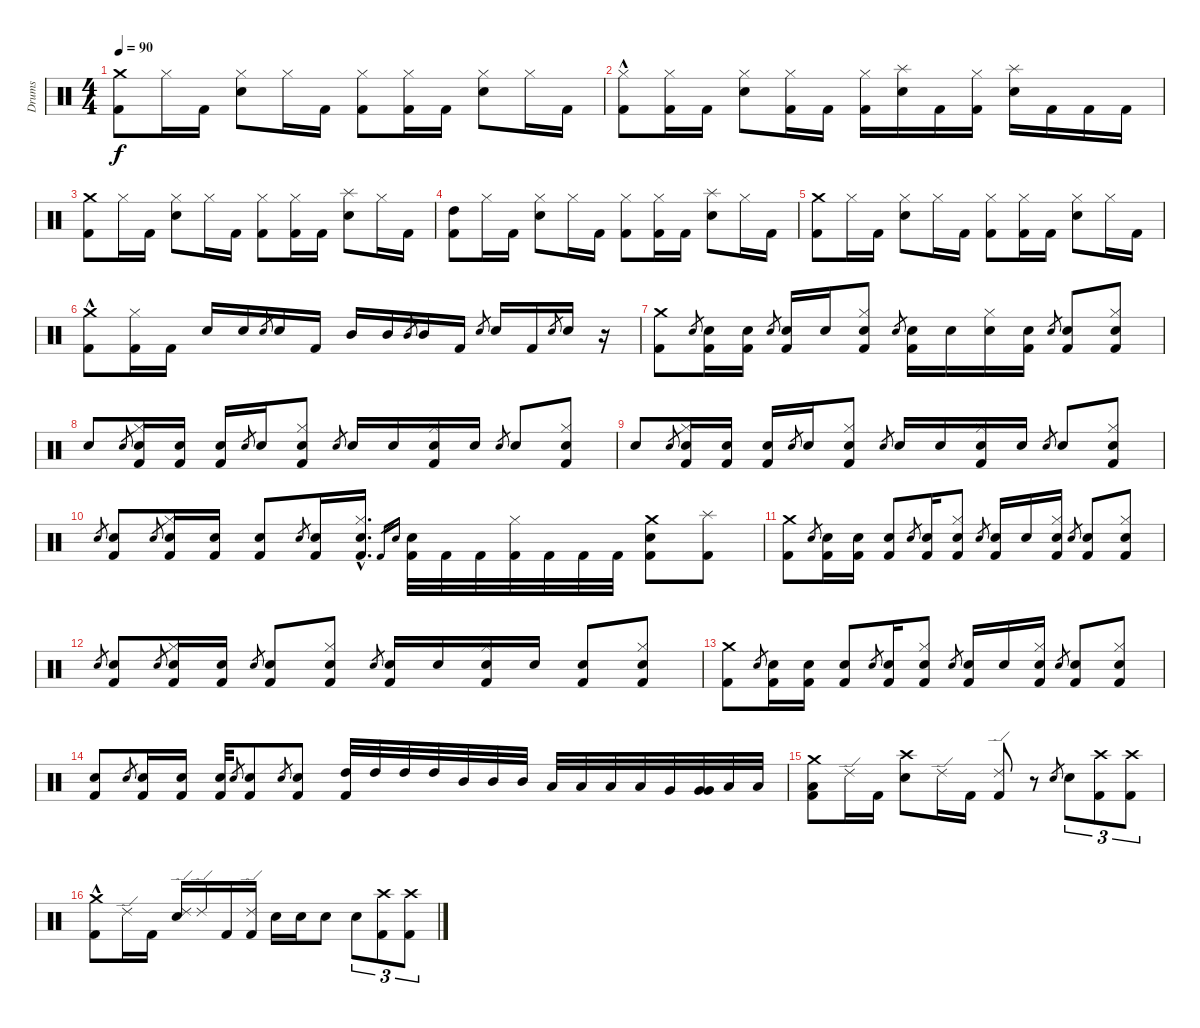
\track ("Drums" "Drums") {instrument percussion}
\staff {score}
\articulation defaults
\ts (4 4)
\tempo 90
\clef neutral
\ks c
("Crash medium (hit)" "Kick (hit) 2").8{dy f} "Hi-Hat (closed)".16 "Kick (hit) 2".16 ("Hi-Hat (closed)" "Electric Snare (hit)").8 "Hi-Hat (closed)".16 "Kick (hit) 2".16 ("Hi-Hat (closed)" "Kick (hit) 2").8 ("Hi-Hat (closed)" "Kick (hit) 2").16 "Kick (hit) 2".16 ("Hi-Hat (closed)" "Electric Snare (hit)").8 "Hi-Hat (closed)".16 "Kick (hit) 2".16 |
("Hi-Hat (closed)" "Kick (hit) 2"{hac}).8 ("Hi-Hat (closed)" "Kick (hit) 2").16 "Kick (hit) 2".16 ("Hi-Hat (closed)" "Electric Snare (hit)").8 ("Hi-Hat (closed)" "Kick (hit) 2").16 "Kick (hit) 2".16 ("Hi-Hat (closed)" "Kick (hit) 2").16 ("Splash (hit)" "Electric Snare (hit)").16 "Kick (hit) 2".16 ("Hi-Hat (closed)" "Kick (hit) 2").16 ("Splash (hit)" "Electric Snare (hit)").16 "Kick (hit) 2".16 "Kick (hit) 2".16 "Kick (hit) 2".16 |
("Crash medium (hit)" "Kick (hit) 2").8 "Hi-Hat (closed)".16 "Kick (hit) 2".16 ("Hi-Hat (closed)" "Electric Snare (hit)").8 "Hi-Hat (closed)".16 "Kick (hit) 2".16 ("Hi-Hat (closed)" "Kick (hit) 2").8 ("Hi-Hat (closed)" "Kick (hit) 2").16 "Kick (hit) 2".16 ("Splash (hit)" "Electric Snare (hit)").8 "Hi-Hat (closed)".16 "Kick (hit) 2".16 |
("High Tom (hit)" "Kick (hit) 2").8 "Hi-Hat (closed)".16 "Kick (hit) 2".16 ("Hi-Hat (closed)" "Electric Snare (hit)").8 "Hi-Hat (closed)".16 "Kick (hit) 2".16 ("Hi-Hat (closed)" "Kick (hit) 2").8 ("Hi-Hat (closed)" "Kick (hit) 2").16 "Kick (hit) 2".16 ("Splash (hit)" "Electric Snare (hit)").8 "Hi-Hat (closed)".16 "Kick (hit) 2".16 |
("Crash medium (hit)" "Kick (hit) 2").8 "Hi-Hat (closed)".16 "Kick (hit) 2".16 ("Hi-Hat (closed)" "Electric Snare (hit)").8 "Hi-Hat (closed)".16 "Kick (hit) 2".16 ("Hi-Hat (closed)" "Kick (hit) 2").8 ("Hi-Hat (closed)" "Kick (hit) 2").16 "Kick (hit) 2".16 ("Hi-Hat (closed)" "Electric Snare (hit)").8 "Hi-Hat (closed)".16 "Kick (hit) 2".16 |
("Crash medium (hit)" "Kick (hit) 2"{hac}).8 ("Hi-Hat (closed)" "Kick (hit) 2").16 "Kick (hit) 2".16 "Electric Snare (hit)".16 "Electric Snare (hit)".16 "Electric Snare (hit)".8{gr} "Electric Snare (hit)".16 "Kick (hit) 2".16 "Mid Tom (hit)".16 "Mid Tom (hit)".16 "Mid Tom (hit)".8{gr} "Mid Tom (hit)".16 "Kick (hit) 2".16 "Electric Snare (hit)".8{gr} "Electric Snare (hit)".16 "Kick (hit) 2".16 "Electric Snare (hit)".8{gr} "Electric Snare (hit)".16 r.16 |
("Crash medium (hit)" "Kick (hit) 2").8 "Electric Snare (hit)".8{gr} ("Kick (hit) 2" "Electric Snare (hit)").16 ("Kick (hit) 2" "Electric Snare (hit)").16 "Electric Snare (hit)".8{gr} ("Kick (hit) 2" "Electric Snare (hit)").16 "Electric Snare (hit)".16 ("Hi-Hat (closed)" "Kick (hit) 2" "Electric Snare (hit)").8 "Electric Snare (hit)".8{gr} ("Kick (hit) 2" "Electric Snare (hit)").16 "Electric Snare (hit)".16 ("Hi-Hat (closed)" "Electric Snare (hit)").16 ("Kick (hit) 2" "Electric Snare (hit)").16 "Electric Snare (hit)".8{gr} ("Kick (hit) 2" "Electric Snare (hit)").8 ("Hi-Hat (closed)" "Kick (hit) 2" "Electric Snare (hit)").8 |
"Electric Snare (hit)".8 "Electric Snare (hit)".8{gr} ("Hi-Hat (closed)" "Kick (hit) 2" "Electric Snare (hit)").16 ("Kick (hit) 2" "Electric Snare (hit)").16 ("Kick (hit) 2" "Electric Snare (hit)").16 "Electric Snare (hit)".8{gr} "Electric Snare (hit)".16 ("Hi-Hat (closed)" "Kick (hit) 2" "Electric Snare (hit)").8 "Electric Snare (hit)".8{gr} "Electric Snare (hit)".16 "Electric Snare (hit)".16 ("Hi-Hat (closed)" "Kick (hit) 2" "Electric Snare (hit)").16 "Electric Snare (hit)".16 "Electric Snare (hit)".8{gr} "Electric Snare (hit)".8 ("Hi-Hat (closed)" "Kick (hit) 2" "Electric Snare (hit)").8 |
"Electric Snare (hit)".8 "Electric Snare (hit)".8{gr} ("Hi-Hat (closed)" "Kick (hit) 2" "Electric Snare (hit)").16 ("Kick (hit) 2" "Electric Snare (hit)").16 ("Kick (hit) 2" "Electric Snare (hit)").16 "Electric Snare (hit)".8{gr} "Electric Snare (hit)".16 ("Hi-Hat (closed)" "Kick (hit) 2" "Electric Snare (hit)").8 "Electric Snare (hit)".8{gr} "Electric Snare (hit)".16 "Electric Snare (hit)".16 ("Hi-Hat (closed)" "Kick (hit) 2" "Electric Snare (hit)").16 "Electric Snare (hit)".16 "Electric Snare (hit)".8{gr} "Electric Snare (hit)".8 ("Hi-Hat (closed)" "Kick (hit) 2" "Electric Snare (hit)").8 |
"Electric Snare (hit)".8{gr} ("Kick (hit) 2" "Electric Snare (hit)").8 "Electric Snare (hit)".8{gr} ("Hi-Hat (closed)" "Kick (hit) 2" "Electric Snare (hit)").16 ("Kick (hit) 2" "Electric Snare (hit)").16 ("Kick (hit) 2" "Electric Snare (hit)").8 "Electric Snare (hit)".8{gr} ("Kick (hit) 2" "Electric Snare (hit)").16 ("Hi-Hat (closed)" "Kick (hit) 2" "Electric Snare (hit)"{hac}).16{d} "Kick (hit) 2".16{gr} "Electric Snare (hit)".16{gr} ("Kick (hit) 2" "Electric Snare (hit)").32 "Kick (hit) 2".32 "Kick (hit) 2".32 ("Hi-Hat (closed)" "Kick (hit) 2").32 "Kick (hit) 2".32 "Kick (hit) 2".32 "Kick (hit) 2".32 ("Crash medium (hit)" "Kick (hit) 2" "Electric Snare (hit)").8 ("Splash (hit)" "Kick (hit) 2").8 |
("Crash medium (hit)" "Kick (hit) 2").8 "Electric Snare (hit)".8{gr} ("Kick (hit) 2" "Electric Snare (hit)").16 ("Kick (hit) 2" "Electric Snare (hit)").16 ("Kick (hit) 2" "Electric Snare (hit)").8 "Electric Snare (hit)".8{gr} ("Kick (hit) 2" "Electric Snare (hit)").16 ("Hi-Hat (closed)" "Kick (hit) 2" "Electric Snare (hit)").8 "Electric Snare (hit)".8{gr} ("Kick (hit) 2" "Electric Snare (hit)").16 "Electric Snare (hit)".16 ("Hi-Hat (closed)" "Kick (hit) 2" "Electric Snare (hit)").16 "Electric Snare (hit)".8{gr} ("Kick (hit) 2" "Electric Snare (hit)").8 ("Hi-Hat (closed)" "Kick (hit) 2" "Electric Snare (hit)").8 |
"Electric Snare (hit)".8{gr} ("Kick (hit) 2" "Electric Snare (hit)").8 "Electric Snare (hit)".8{gr} ("Hi-Hat (closed)" "Kick (hit) 2" "Electric Snare (hit)").16 ("Kick (hit) 2" "Electric Snare (hit)").16 "Electric Snare (hit)".8{gr} ("Kick (hit) 2" "Electric Snare (hit)").8 ("Hi-Hat (closed)" "Kick (hit) 2" "Electric Snare (hit)").8 "Electric Snare (hit)".8{gr} ("Kick (hit) 2" "Electric Snare (hit)").16 "Electric Snare (hit)".16 ("Hi-Hat (closed)" "Kick (hit) 2" "Electric Snare (hit)").16 "Electric Snare (hit)".16 ("Kick (hit) 2" "Electric Snare (hit)").8 ("Hi-Hat (closed)" "Kick (hit) 2" "Electric Snare (hit)").8 |
("Crash medium (hit)" "Kick (hit) 2").8 "Electric Snare (hit)".8{gr} ("Kick (hit) 2" "Electric Snare (hit)").16 ("Kick (hit) 2" "Electric Snare (hit)").16 ("Kick (hit) 2" "Electric Snare (hit)").8 "Electric Snare (hit)".8{gr} ("Kick (hit) 2" "Electric Snare (hit)").16 ("Hi-Hat (closed)" "Kick (hit) 2" "Electric Snare (hit)").8 "Electric Snare (hit)".8{gr} ("Kick (hit) 2" "Electric Snare (hit)").16 "Electric Snare (hit)".16 ("Hi-Hat (closed)" "Kick (hit) 2" "Electric Snare (hit)").16 "Electric Snare (hit)".8{gr} ("Kick (hit) 2" "Electric Snare (hit)").8 ("Hi-Hat (closed)" "Kick (hit) 2" "Electric Snare (hit)").8 |
("Kick (hit) 2" "Electric Snare (hit)").8 "Electric Snare (hit)".8{gr} ("Kick (hit) 2" "Electric Snare (hit)").16 ("Kick (hit) 2" "Electric Snare (hit)").16 ("Kick (hit) 2" "Electric Snare (hit)").32 "Electric Snare (hit)".8{gr} ("Kick (hit) 2" "Electric Snare (hit)").8 "Electric Snare (hit)".8{gr} ("Kick (hit) 2" "Electric Snare (hit)").8 ("Kick (hit) 2" "High Tom (hit)").32 "High Tom (hit)".32 "High Tom (hit)".32 "High Tom (hit)".32 "Mid Tom (hit)".32 "Mid Tom (hit)".32 "Mid Tom (hit)".32 "Low Tom (hit)".32 "Low Tom (hit)".32 "Low Tom (hit)".32 "Low Tom (hit)".32 "Very Low Tom (hit)".32 ("Very Low Tom (hit)" "Very Low Tom (hit)").32 "Low Floor Tom (hit)".32 "Low Floor Tom (hit)".32 |
("Crash medium (hit)" "Kick (hit) 2" "Low Floor Tom (hit)").8 "Ride (edge) 2".16 "Kick (hit) 2".16 ("Crash high (hit)" "Electric Snare (hit)").8 "Ride (edge) 2".16 "Kick (hit) 2".16 ("Ride (edge) 2" "Kick (hit) 2").8 r.8 "Electric Snare (hit)".8{gr} "Electric Snare (hit)".8{tu (3 2)} ("Crash high (hit)" "Kick (hit) 2").8{tu (3 2)} ("Crash high (hit)" "Kick (hit) 2").8{tu (3 2)} |
("Crash medium (hit)" "Kick (hit) 2"{hac}).8 "Ride (edge) 2".16 "Kick (hit) 2".16 ("Ride (edge) 2" "Electric Snare (hit)").16 "Ride (edge) 2".16 "Kick (hit) 2".16 ("Ride (edge) 2" "Kick (hit) 2").16 "Electric Snare (hit)".16 "Electric Snare (hit)".16 "Electric Snare (hit)".8 "Electric Snare (hit)".8{tu (3 2)} ("Crash high (hit)" "Kick (hit) 2").8{tu (3 2)} ("Crash high (hit)" "Kick (hit) 2").8{tu (3 2)}
